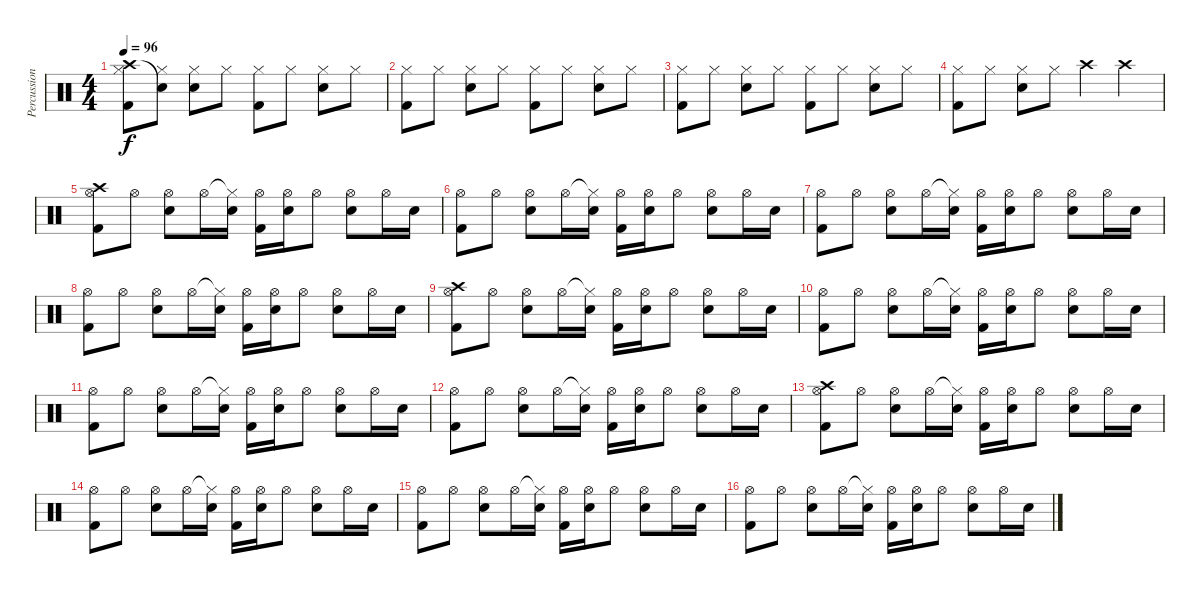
\track ("Percussion" "Percussion") {instrument percussion}
\staff {score}
\articulation defaults
\ts (4 4)
\tempo 96
\clef neutral
\ks c
("Crash high (hit)" "Hi-Hat (closed)" "Kick (hit) 2").8{dy f} ("Snare (hit)"{t} "Hi-Hat (closed)").8 ("Hi-Hat (closed)" "Snare (hit) 2").8 "Hi-Hat (closed)".8 ("Hi-Hat (closed)" "Kick (hit) 2").8 "Hi-Hat (closed)".8 ("Hi-Hat (closed)" "Snare (hit) 2").8 "Hi-Hat (closed)".8 |
("Hi-Hat (closed)" "Kick (hit) 2").8 "Hi-Hat (closed)".8 ("Hi-Hat (closed)" "Snare (hit) 2").8 "Hi-Hat (closed)".8 ("Hi-Hat (closed)" "Kick (hit) 2").8 "Hi-Hat (closed)".8 ("Hi-Hat (closed)" "Snare (hit) 2").8 "Hi-Hat (closed)".8 |
("Hi-Hat (closed)" "Kick (hit) 2").8 "Hi-Hat (closed)".8 ("Hi-Hat (closed)" "Snare (hit) 2").8 "Hi-Hat (closed)".8 ("Hi-Hat (closed)" "Kick (hit) 2").8 "Hi-Hat (closed)".8 ("Hi-Hat (closed)" "Snare (hit) 2").8 "Hi-Hat (closed)".8 |
("Hi-Hat (closed)" "Kick (hit) 2").8 "Hi-Hat (closed)".8 ("Hi-Hat (closed)" "Snare (hit) 2").8 "Hi-Hat (closed)".8 "Crash high (hit)".4 "Crash high (hit)".4 |
("Crash high (hit)" "Hi-Hat (open)" "Kick (hit) 2").8 "Hi-Hat (open)".8 ("Hi-Hat (open)" "Snare (hit) 2").8 "Hi-Hat (open)".16 ("Hi-Hat (closed)"{t} "Snare (hit) 2").16 ("Hi-Hat (open)" "Kick (hit) 2").16 ("Hi-Hat (open)" "Snare (hit) 2").16 "Hi-Hat (open)".8 ("Hi-Hat (open)" "Snare (hit) 2").8 "Hi-Hat (open)".16 "Snare (hit) 2".16 |
("Hi-Hat (open)" "Kick (hit) 2").8 "Hi-Hat (open)".8 ("Hi-Hat (open)" "Snare (hit) 2").8 "Hi-Hat (open)".16 ("Hi-Hat (closed)"{t} "Snare (hit) 2").16 ("Hi-Hat (open)" "Kick (hit) 2").16 ("Hi-Hat (open)" "Snare (hit) 2").16 "Hi-Hat (open)".8 ("Hi-Hat (open)" "Snare (hit) 2").8 "Hi-Hat (open)".16 "Snare (hit) 2".16 |
("Hi-Hat (open)" "Kick (hit) 2").8 "Hi-Hat (open)".8 ("Hi-Hat (open)" "Snare (hit) 2").8 "Hi-Hat (open)".16 ("Hi-Hat (closed)"{t} "Snare (hit) 2").16 ("Hi-Hat (open)" "Kick (hit) 2").16 ("Hi-Hat (open)" "Snare (hit) 2").16 "Hi-Hat (open)".8 ("Hi-Hat (open)" "Snare (hit) 2").8 "Hi-Hat (open)".16 "Snare (hit) 2".16 |
("Hi-Hat (open)" "Kick (hit) 2").8 "Hi-Hat (open)".8 ("Hi-Hat (open)" "Snare (hit) 2").8 "Hi-Hat (open)".16 ("Hi-Hat (closed)"{t} "Snare (hit) 2").16 ("Hi-Hat (open)" "Kick (hit) 2").16 ("Hi-Hat (open)" "Snare (hit) 2").16 "Hi-Hat (open)".8 ("Hi-Hat (open)" "Snare (hit) 2").8 "Hi-Hat (open)".16 "Snare (hit) 2".16 |
("Crash high (hit)" "Hi-Hat (open)" "Kick (hit) 2").8 "Hi-Hat (open)".8 ("Hi-Hat (open)" "Snare (hit) 2").8 "Hi-Hat (open)".16 ("Hi-Hat (closed)"{t} "Snare (hit) 2").16 ("Hi-Hat (open)" "Kick (hit) 2").16 ("Hi-Hat (open)" "Snare (hit) 2").16 "Hi-Hat (open)".8 ("Hi-Hat (open)" "Snare (hit) 2").8 "Hi-Hat (open)".16 "Snare (hit) 2".16 |
("Hi-Hat (open)" "Kick (hit) 2").8 "Hi-Hat (open)".8 ("Hi-Hat (open)" "Snare (hit) 2").8 "Hi-Hat (open)".16 ("Hi-Hat (closed)"{t} "Snare (hit) 2").16 ("Hi-Hat (open)" "Kick (hit) 2").16 ("Hi-Hat (open)" "Snare (hit) 2").16 "Hi-Hat (open)".8 ("Hi-Hat (open)" "Snare (hit) 2").8 "Hi-Hat (open)".16 "Snare (hit) 2".16 |
("Hi-Hat (open)" "Kick (hit) 2").8 "Hi-Hat (open)".8 ("Hi-Hat (open)" "Snare (hit) 2").8 "Hi-Hat (open)".16 ("Hi-Hat (closed)"{t} "Snare (hit) 2").16 ("Hi-Hat (open)" "Kick (hit) 2").16 ("Hi-Hat (open)" "Snare (hit) 2").16 "Hi-Hat (open)".8 ("Hi-Hat (open)" "Snare (hit) 2").8 "Hi-Hat (open)".16 "Snare (hit) 2".16 |
("Hi-Hat (open)" "Kick (hit) 2").8 "Hi-Hat (open)".8 ("Hi-Hat (open)" "Snare (hit) 2").8 "Hi-Hat (open)".16 ("Hi-Hat (closed)"{t} "Snare (hit) 2").16 ("Hi-Hat (open)" "Kick (hit) 2").16 ("Hi-Hat (open)" "Snare (hit) 2").16 "Hi-Hat (open)".8 ("Hi-Hat (open)" "Snare (hit) 2").8 "Hi-Hat (open)".16 "Snare (hit) 2".16 |
("Crash high (hit)" "Hi-Hat (open)" "Kick (hit) 2").8 "Hi-Hat (open)".8 ("Hi-Hat (open)" "Snare (hit) 2").8 "Hi-Hat (open)".16 ("Hi-Hat (closed)"{t} "Snare (hit) 2").16 ("Hi-Hat (open)" "Kick (hit) 2").16 ("Hi-Hat (open)" "Snare (hit) 2").16 "Hi-Hat (open)".8 ("Hi-Hat (open)" "Snare (hit) 2").8 "Hi-Hat (open)".16 "Snare (hit) 2".16 |
("Hi-Hat (open)" "Kick (hit) 2").8 "Hi-Hat (open)".8 ("Hi-Hat (open)" "Snare (hit) 2").8 "Hi-Hat (open)".16 ("Hi-Hat (closed)"{t} "Snare (hit) 2").16 ("Hi-Hat (open)" "Kick (hit) 2").16 ("Hi-Hat (open)" "Snare (hit) 2").16 "Hi-Hat (open)".8 ("Hi-Hat (open)" "Snare (hit) 2").8 "Hi-Hat (open)".16 "Snare (hit) 2".16 |
("Hi-Hat (open)" "Kick (hit) 2").8 "Hi-Hat (open)".8 ("Hi-Hat (open)" "Snare (hit) 2").8 "Hi-Hat (open)".16 ("Hi-Hat (closed)"{t} "Snare (hit) 2").16 ("Hi-Hat (open)" "Kick (hit) 2").16 ("Hi-Hat (open)" "Snare (hit) 2").16 "Hi-Hat (open)".8 ("Hi-Hat (open)" "Snare (hit) 2").8 "Hi-Hat (open)".16 "Snare (hit) 2".16 |
("Hi-Hat (open)" "Kick (hit) 2").8 "Hi-Hat (open)".8 ("Hi-Hat (open)" "Snare (hit) 2").8 "Hi-Hat (open)".16 ("Hi-Hat (closed)"{t} "Snare (hit) 2").16 ("Hi-Hat (open)" "Kick (hit) 2").16 ("Hi-Hat (open)" "Snare (hit) 2").16 "Hi-Hat (open)".8 ("Hi-Hat (open)" "Snare (hit) 2").8 "Hi-Hat (open)".16 "Snare (hit) 2".16
